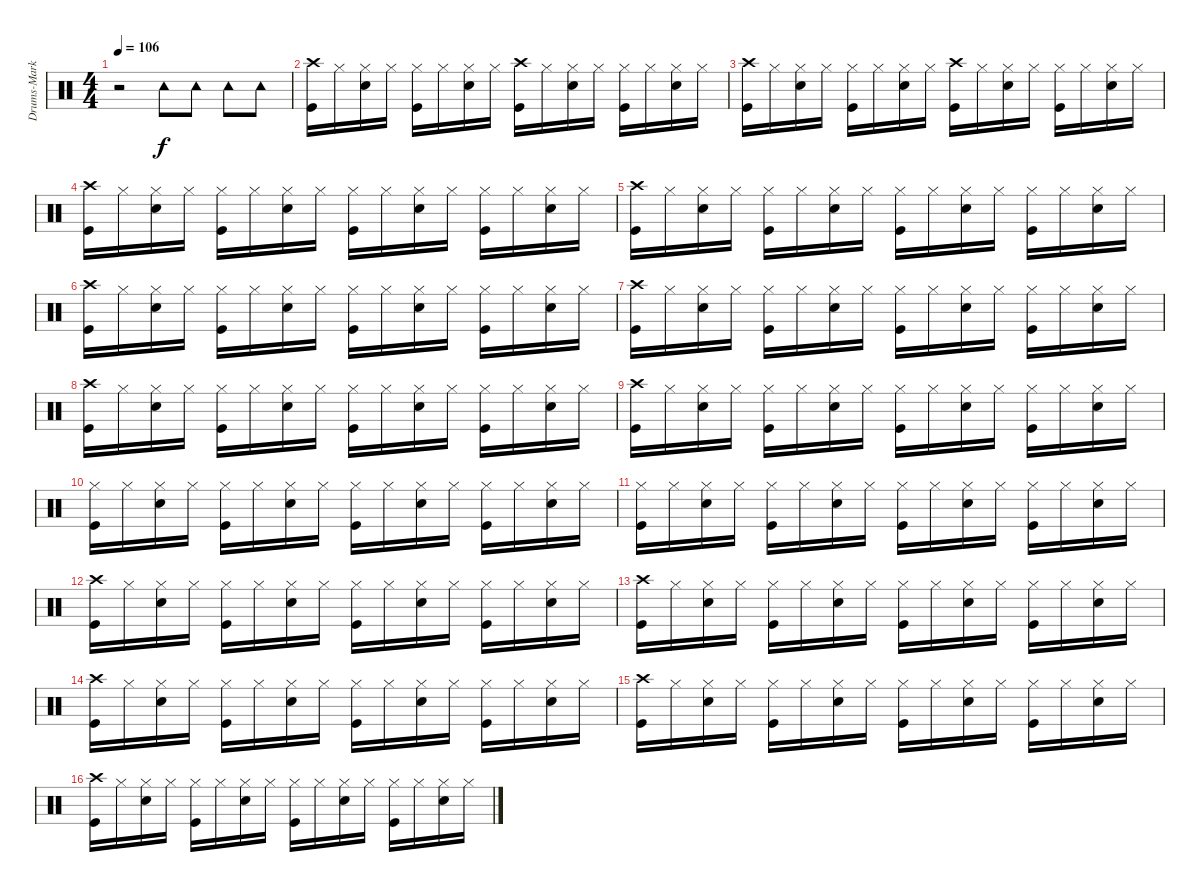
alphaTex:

\track ("Drums-Marky Ramone" "Drums-Mark") {instrument percussion}
\staff {score}
\articulation defaults
\ts (4 4)
\tempo 106
\clef neutral
\ks c
r.2{dy f} "Tambourine (hit)".8 "Tambourine (hit)".8 "Tambourine (hit)".8 "Tambourine (hit)".8 |
("Crash high (hit)" "Kick (hit)").16 "Hi-Hat (closed)".16 ("Hi-Hat (closed)" "Electric Snare (hit)").16 "Hi-Hat (closed)".16 ("Hi-Hat (closed)" "Kick (hit)").16 "Hi-Hat (closed)".16 ("Hi-Hat (closed)" "Electric Snare (hit)").16 "Hi-Hat (closed)".16 ("Crash high (hit)" "Kick (hit)").16 "Hi-Hat (closed)".16 ("Hi-Hat (closed)" "Electric Snare (hit)").16 "Hi-Hat (closed)".16 ("Hi-Hat (closed)" "Kick (hit)").16 "Hi-Hat (closed)".16 ("Hi-Hat (closed)" "Electric Snare (hit)").16 "Hi-Hat (closed)".16 |
("Crash high (hit)" "Kick (hit)").16 "Hi-Hat (closed)".16 ("Hi-Hat (closed)" "Electric Snare (hit)").16 "Hi-Hat (closed)".16 ("Hi-Hat (closed)" "Kick (hit)").16 "Hi-Hat (closed)".16 ("Hi-Hat (closed)" "Electric Snare (hit)").16 "Hi-Hat (closed)".16 ("Crash high (hit)" "Kick (hit)").16 "Hi-Hat (closed)".16 ("Hi-Hat (closed)" "Electric Snare (hit)").16 "Hi-Hat (closed)".16 ("Hi-Hat (closed)" "Kick (hit)").16 "Hi-Hat (closed)".16 ("Hi-Hat (closed)" "Electric Snare (hit)").16 "Hi-Hat (closed)".16 |
("Crash high (hit)" "Kick (hit)").16 "Hi-Hat (closed)".16 ("Hi-Hat (closed)" "Electric Snare (hit)").16 "Hi-Hat (closed)".16 ("Hi-Hat (closed)" "Kick (hit)").16 "Hi-Hat (closed)".16 ("Hi-Hat (closed)" "Electric Snare (hit)").16 "Hi-Hat (closed)".16 ("Hi-Hat (closed)" "Kick (hit)").16 "Hi-Hat (closed)".16 ("Hi-Hat (closed)" "Electric Snare (hit)").16 "Hi-Hat (closed)".16 ("Hi-Hat (closed)" "Kick (hit)").16 "Hi-Hat (closed)".16 ("Hi-Hat (closed)" "Electric Snare (hit)").16 "Hi-Hat (closed)".16 |
("Crash high (hit)" "Kick (hit)").16 "Hi-Hat (closed)".16 ("Hi-Hat (closed)" "Electric Snare (hit)").16 "Hi-Hat (closed)".16 ("Hi-Hat (closed)" "Kick (hit)").16 "Hi-Hat (closed)".16 ("Hi-Hat (closed)" "Electric Snare (hit)").16 "Hi-Hat (closed)".16 ("Hi-Hat (closed)" "Kick (hit)").16 "Hi-Hat (closed)".16 ("Hi-Hat (closed)" "Electric Snare (hit)").16 "Hi-Hat (closed)".16 ("Hi-Hat (closed)" "Kick (hit)").16 "Hi-Hat (closed)".16 ("Hi-Hat (closed)" "Electric Snare (hit)").16 "Hi-Hat (closed)".16 |
("Crash high (hit)" "Kick (hit)").16 "Hi-Hat (closed)".16 ("Hi-Hat (closed)" "Electric Snare (hit)").16 "Hi-Hat (closed)".16 ("Hi-Hat (closed)" "Kick (hit)").16 "Hi-Hat (closed)".16 ("Hi-Hat (closed)" "Electric Snare (hit)").16 "Hi-Hat (closed)".16 ("Hi-Hat (closed)" "Kick (hit)").16 "Hi-Hat (closed)".16 ("Hi-Hat (closed)" "Electric Snare (hit)").16 "Hi-Hat (closed)".16 ("Hi-Hat (closed)" "Kick (hit)").16 "Hi-Hat (closed)".16 ("Hi-Hat (closed)" "Electric Snare (hit)").16 "Hi-Hat (closed)".16 |
("Crash high (hit)" "Kick (hit)").16 "Hi-Hat (closed)".16 ("Hi-Hat (closed)" "Electric Snare (hit)").16 "Hi-Hat (closed)".16 ("Hi-Hat (closed)" "Kick (hit)").16 "Hi-Hat (closed)".16 ("Hi-Hat (closed)" "Electric Snare (hit)").16 "Hi-Hat (closed)".16 ("Hi-Hat (closed)" "Kick (hit)").16 "Hi-Hat (closed)".16 ("Hi-Hat (closed)" "Electric Snare (hit)").16 "Hi-Hat (closed)".16 ("Hi-Hat (closed)" "Kick (hit)").16 "Hi-Hat (closed)".16 ("Hi-Hat (closed)" "Electric Snare (hit)").16 "Hi-Hat (closed)".16 |
("Crash high (hit)" "Kick (hit)").16 "Hi-Hat (closed)".16 ("Hi-Hat (closed)" "Electric Snare (hit)").16 "Hi-Hat (closed)".16 ("Hi-Hat (closed)" "Kick (hit)").16 "Hi-Hat (closed)".16 ("Hi-Hat (closed)" "Electric Snare (hit)").16 "Hi-Hat (closed)".16 ("Hi-Hat (closed)" "Kick (hit)").16 "Hi-Hat (closed)".16 ("Hi-Hat (closed)" "Electric Snare (hit)").16 "Hi-Hat (closed)".16 ("Hi-Hat (closed)" "Kick (hit)").16 "Hi-Hat (closed)".16 ("Hi-Hat (closed)" "Electric Snare (hit)").16 "Hi-Hat (closed)".16 |
("Crash high (hit)" "Kick (hit)").16 "Hi-Hat (closed)".16 ("Hi-Hat (closed)" "Electric Snare (hit)").16 "Hi-Hat (closed)".16 ("Hi-Hat (closed)" "Kick (hit)").16 "Hi-Hat (closed)".16 ("Hi-Hat (closed)" "Electric Snare (hit)").16 "Hi-Hat (closed)".16 ("Hi-Hat (closed)" "Kick (hit)").16 "Hi-Hat (closed)".16 ("Hi-Hat (closed)" "Electric Snare (hit)").16 "Hi-Hat (closed)".16 ("Hi-Hat (closed)" "Kick (hit)").16 "Hi-Hat (closed)".16 ("Hi-Hat (closed)" "Electric Snare (hit)").16 "Hi-Hat (closed)".16 |
("Hi-Hat (closed)" "Kick (hit)").16 "Hi-Hat (closed)".16 ("Hi-Hat (closed)" "Electric Snare (hit)").16 "Hi-Hat (closed)".16 ("Hi-Hat (closed)" "Kick (hit)").16 "Hi-Hat (closed)".16 ("Hi-Hat (closed)" "Electric Snare (hit)").16 "Hi-Hat (closed)".16 ("Hi-Hat (closed)" "Kick (hit)").16 "Hi-Hat (closed)".16 ("Hi-Hat (closed)" "Electric Snare (hit)").16 "Hi-Hat (closed)".16 ("Hi-Hat (closed)" "Kick (hit)").16 "Hi-Hat (closed)".16 ("Hi-Hat (closed)" "Electric Snare (hit)").16 "Hi-Hat (closed)".16 |
("Hi-Hat (closed)" "Kick (hit)").16 "Hi-Hat (closed)".16 ("Hi-Hat (closed)" "Electric Snare (hit)").16 "Hi-Hat (closed)".16 ("Hi-Hat (closed)" "Kick (hit)").16 "Hi-Hat (closed)".16 ("Hi-Hat (closed)" "Electric Snare (hit)").16 "Hi-Hat (closed)".16 ("Hi-Hat (closed)" "Kick (hit)").16 "Hi-Hat (closed)".16 ("Hi-Hat (closed)" "Electric Snare (hit)").16 "Hi-Hat (closed)".16 ("Hi-Hat (closed)" "Kick (hit)").16 "Hi-Hat (closed)".16 ("Hi-Hat (closed)" "Electric Snare (hit)").16 "Hi-Hat (closed)".16 |
("Crash high (hit)" "Kick (hit)").16 "Hi-Hat (closed)".16 ("Hi-Hat (closed)" "Electric Snare (hit)").16 "Hi-Hat (closed)".16 ("Hi-Hat (closed)" "Kick (hit)").16 "Hi-Hat (closed)".16 ("Hi-Hat (closed)" "Electric Snare (hit)").16 "Hi-Hat (closed)".16 ("Hi-Hat (closed)" "Kick (hit)").16 "Hi-Hat (closed)".16 ("Hi-Hat (closed)" "Electric Snare (hit)").16 "Hi-Hat (closed)".16 ("Hi-Hat (closed)" "Kick (hit)").16 "Hi-Hat (closed)".16 ("Hi-Hat (closed)" "Electric Snare (hit)").16 "Hi-Hat (closed)".16 |
("Crash high (hit)" "Kick (hit)").16 "Hi-Hat (closed)".16 ("Hi-Hat (closed)" "Electric Snare (hit)").16 "Hi-Hat (closed)".16 ("Hi-Hat (closed)" "Kick (hit)").16 "Hi-Hat (closed)".16 ("Hi-Hat (closed)" "Electric Snare (hit)").16 "Hi-Hat (closed)".16 ("Hi-Hat (closed)" "Kick (hit)").16 "Hi-Hat (closed)".16 ("Hi-Hat (closed)" "Electric Snare (hit)").16 "Hi-Hat (closed)".16 ("Hi-Hat (closed)" "Kick (hit)").16 "Hi-Hat (closed)".16 ("Hi-Hat (closed)" "Electric Snare (hit)").16 "Hi-Hat (closed)".16 |
("Crash high (hit)" "Kick (hit)").16 "Hi-Hat (closed)".16 ("Hi-Hat (closed)" "Electric Snare (hit)").16 "Hi-Hat (closed)".16 ("Hi-Hat (closed)" "Kick (hit)").16 "Hi-Hat (closed)".16 ("Hi-Hat (closed)" "Electric Snare (hit)").16 "Hi-Hat (closed)".16 ("Hi-Hat (closed)" "Kick (hit)").16 "Hi-Hat (closed)".16 ("Hi-Hat (closed)" "Electric Snare (hit)").16 "Hi-Hat (closed)".16 ("Hi-Hat (closed)" "Kick (hit)").16 "Hi-Hat (closed)".16 ("Hi-Hat (closed)" "Electric Snare (hit)").16 "Hi-Hat (closed)".16 |
("Crash high (hit)" "Kick (hit)").16 "Hi-Hat (closed)".16 ("Hi-Hat (closed)" "Electric Snare (hit)").16 "Hi-Hat (closed)".16 ("Hi-Hat (closed)" "Kick (hit)").16 "Hi-Hat (closed)".16 ("Hi-Hat (closed)" "Electric Snare (hit)").16 "Hi-Hat (closed)".16 ("Hi-Hat (closed)" "Kick (hit)").16 "Hi-Hat (closed)".16 ("Hi-Hat (closed)" "Electric Snare (hit)").16 "Hi-Hat (closed)".16 ("Hi-Hat (closed)" "Kick (hit)").16 "Hi-Hat (closed)".16 ("Hi-Hat (closed)" "Electric Snare (hit)").16 "Hi-Hat (closed)".16 |
("Crash high (hit)" "Kick (hit)").16 "Hi-Hat (closed)".16 ("Hi-Hat (closed)" "Electric Snare (hit)").16 "Hi-Hat (closed)".16 ("Hi-Hat (closed)" "Kick (hit)").16 "Hi-Hat (closed)".16 ("Hi-Hat (closed)" "Electric Snare (hit)").16 "Hi-Hat (closed)".16 ("Hi-Hat (closed)" "Kick (hit)").16 "Hi-Hat (closed)".16 ("Hi-Hat (closed)" "Electric Snare (hit)").16 "Hi-Hat (closed)".16 ("Hi-Hat (closed)" "Kick (hit)").16 "Hi-Hat (closed)".16 ("Hi-Hat (closed)" "Electric Snare (hit)").16 "Hi-Hat (closed)".16
